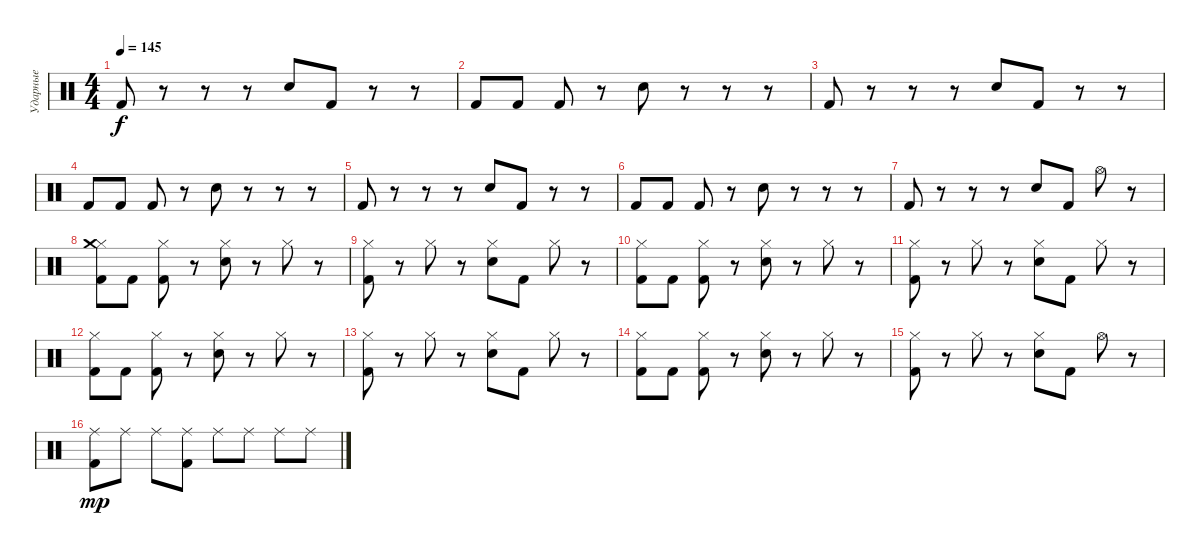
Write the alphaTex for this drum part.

\track ("Ударные" "Ударные") {instrument percussion}
\staff {score}
\articulation defaults
\ts (4 4)
\tempo 145
\clef neutral
\ks c "Kick (hit) 2".8{dy f}
r.8 r.8 r.8 "Snare (hit) 2".8 "Kick (hit) 2".8 r.8 r.8 |
"Kick (hit) 2".8 "Kick (hit) 2".8 "Kick (hit) 2".8 r.8 "Snare (hit) 2".8 r.8 r.8 r.8 |
"Kick (hit) 2".8 r.8 r.8 r.8 "Snare (hit) 2".8 "Kick (hit) 2".8 r.8 r.8 |
"Kick (hit) 2".8 "Kick (hit) 2".8 "Kick (hit) 2".8 r.8 "Snare (hit) 2".8 r.8 r.8 r.8 |
"Kick (hit) 2".8 r.8 r.8 r.8 "Snare (hit) 2".8 "Kick (hit) 2".8 r.8 r.8 |
"Kick (hit) 2".8 "Kick (hit) 2".8 "Kick (hit) 2".8 r.8 "Snare (hit) 2".8 r.8 r.8 r.8 |
"Kick (hit) 2".8 r.8 r.8 r.8 "Snare (hit) 2".8 "Kick (hit) 2".8 "Hi-Hat (open)".8 r.8 |
("Hi-Hat (closed)" "Crash medium (hit)" "Kick (hit) 2").8 "Kick (hit) 2".8 ("Hi-Hat (closed)" "Kick (hit) 2").8 r.8 ("Hi-Hat (closed)" "Snare (hit) 2").8 r.8 "Hi-Hat (closed)".8 r.8 |
("Hi-Hat (closed)" "Kick (hit) 2").8 r.8 "Hi-Hat (closed)".8 r.8 ("Hi-Hat (closed)" "Snare (hit) 2").8 "Kick (hit) 2".8 "Hi-Hat (closed)".8 r.8 |
("Hi-Hat (closed)" "Kick (hit) 2").8 "Kick (hit) 2".8 ("Hi-Hat (closed)" "Kick (hit) 2").8 r.8 ("Hi-Hat (closed)" "Snare (hit) 2").8 r.8 "Hi-Hat (closed)".8 r.8 |
("Hi-Hat (closed)" "Kick (hit) 2").8 r.8 "Hi-Hat (closed)".8 r.8 ("Hi-Hat (closed)" "Snare (hit) 2").8 "Kick (hit) 2".8 "Hi-Hat (closed)".8 r.8 |
("Hi-Hat (closed)" "Kick (hit) 2").8 "Kick (hit) 2".8 ("Hi-Hat (closed)" "Kick (hit) 2").8 r.8 ("Hi-Hat (closed)" "Snare (hit) 2").8 r.8 "Hi-Hat (closed)".8 r.8 |
("Hi-Hat (closed)" "Kick (hit) 2").8 r.8 "Hi-Hat (closed)".8 r.8 ("Hi-Hat (closed)" "Snare (hit) 2").8 "Kick (hit) 2".8 "Hi-Hat (closed)".8 r.8 |
("Hi-Hat (closed)" "Kick (hit) 2").8 "Kick (hit) 2".8 ("Hi-Hat (closed)" "Kick (hit) 2").8 r.8 ("Hi-Hat (closed)" "Snare (hit) 2").8 r.8 "Hi-Hat (closed)".8 r.8 |
("Hi-Hat (closed)" "Kick (hit) 2").8 r.8 "Hi-Hat (closed)".8 r.8 ("Hi-Hat (closed)" "Snare (hit) 2").8 "Kick (hit) 2".8 "Hi-Hat (open)".8 r.8 |
("Ride (middle)" "Kick (hit) 2").8{dy mp} "Ride (middle)".8 "Ride (middle)".8 ("Ride (middle)" "Kick (hit) 2").8 "Ride (middle)".8 "Ride (middle)".8 "Ride (middle)".8 "Ride (middle)".8
